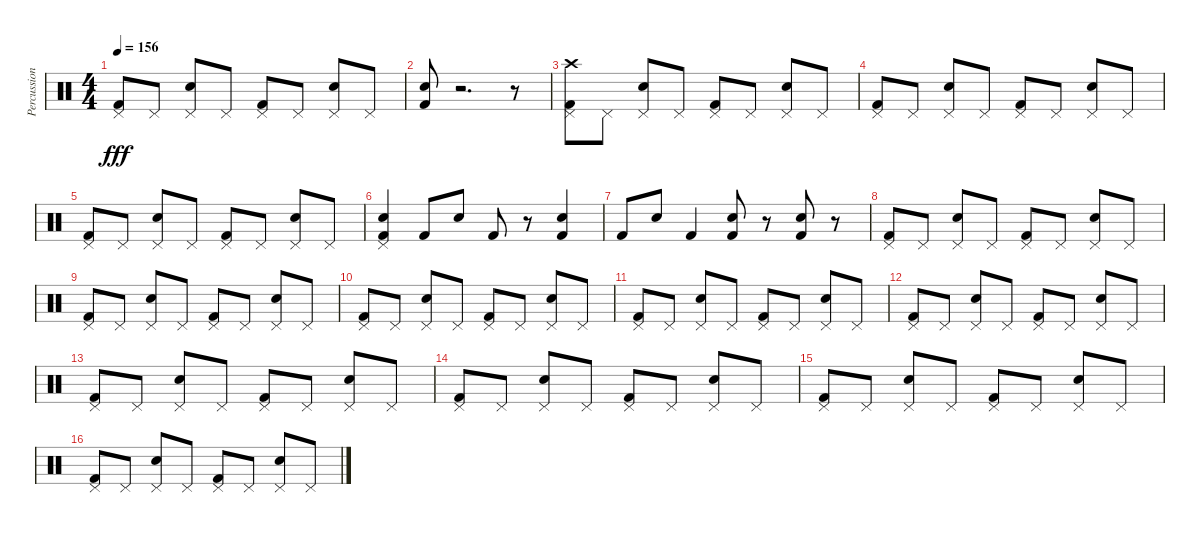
\track ("Percussion" "Percussion") {instrument percussion}
\staff {score}
\articulation defaults
\ts (4 4)
\tempo 156
\clef neutral
\ks c
("Pedal Hi-Hat (hit)" "Kick (hit) 2").8{dy fff} "Pedal Hi-Hat (hit)".8 ("Pedal Hi-Hat (hit)" "Electric Snare (hit)").8 "Pedal Hi-Hat (hit)".8 ("Pedal Hi-Hat (hit)" "Kick (hit) 2").8 "Pedal Hi-Hat (hit)".8 ("Pedal Hi-Hat (hit)" "Electric Snare (hit)").8 "Pedal Hi-Hat (hit)".8 |
("Kick (hit) 2" "Electric Snare (hit)").8 r.2{d} r.8 |
("Pedal Hi-Hat (hit)" "Kick (hit) 2" "Crash high (hit)").8 "Pedal Hi-Hat (hit)".8 ("Pedal Hi-Hat (hit)" "Electric Snare (hit)").8 "Pedal Hi-Hat (hit)".8 ("Pedal Hi-Hat (hit)" "Kick (hit) 2").8 "Pedal Hi-Hat (hit)".8 ("Pedal Hi-Hat (hit)" "Electric Snare (hit)").8 "Pedal Hi-Hat (hit)".8 |
("Pedal Hi-Hat (hit)" "Kick (hit) 2").8 "Pedal Hi-Hat (hit)".8 ("Pedal Hi-Hat (hit)" "Electric Snare (hit)").8 "Pedal Hi-Hat (hit)".8 ("Pedal Hi-Hat (hit)" "Kick (hit) 2").8 "Pedal Hi-Hat (hit)".8 ("Pedal Hi-Hat (hit)" "Electric Snare (hit)").8 "Pedal Hi-Hat (hit)".8 |
("Pedal Hi-Hat (hit)" "Kick (hit) 2").8 "Pedal Hi-Hat (hit)".8 ("Pedal Hi-Hat (hit)" "Electric Snare (hit)").8 "Pedal Hi-Hat (hit)".8 ("Pedal Hi-Hat (hit)" "Kick (hit) 2").8 "Pedal Hi-Hat (hit)".8 ("Pedal Hi-Hat (hit)" "Electric Snare (hit)").8 "Pedal Hi-Hat (hit)".8 |
("Pedal Hi-Hat (hit)" "Kick (hit) 2" "Snare (hit) 2").4 "Kick (hit) 2".8 "Snare (hit) 2".8 "Kick (hit) 2".8 r.8 ("Snare (hit) 2" "Kick (hit) 2").4 |
"Kick (hit) 2".8 "Snare (hit) 2".8 "Kick (hit) 2".4 ("Snare (hit) 2" "Kick (hit) 2").8 r.8 ("Snare (hit) 2" "Kick (hit) 2").8 r.8 |
("Pedal Hi-Hat (hit)" "Kick (hit) 2").8 "Pedal Hi-Hat (hit)".8 ("Pedal Hi-Hat (hit)" "Electric Snare (hit)").8 "Pedal Hi-Hat (hit)".8 ("Pedal Hi-Hat (hit)" "Kick (hit) 2").8 "Pedal Hi-Hat (hit)".8 ("Pedal Hi-Hat (hit)" "Electric Snare (hit)").8 "Pedal Hi-Hat (hit)".8 |
("Pedal Hi-Hat (hit)" "Kick (hit) 2").8 "Pedal Hi-Hat (hit)".8 ("Pedal Hi-Hat (hit)" "Electric Snare (hit)").8 "Pedal Hi-Hat (hit)".8 ("Pedal Hi-Hat (hit)" "Kick (hit) 2").8 "Pedal Hi-Hat (hit)".8 ("Pedal Hi-Hat (hit)" "Electric Snare (hit)").8 "Pedal Hi-Hat (hit)".8 |
("Pedal Hi-Hat (hit)" "Kick (hit) 2").8 "Pedal Hi-Hat (hit)".8 ("Pedal Hi-Hat (hit)" "Electric Snare (hit)").8 "Pedal Hi-Hat (hit)".8 ("Pedal Hi-Hat (hit)" "Kick (hit) 2").8 "Pedal Hi-Hat (hit)".8 ("Pedal Hi-Hat (hit)" "Electric Snare (hit)").8 "Pedal Hi-Hat (hit)".8 |
("Pedal Hi-Hat (hit)" "Kick (hit) 2").8 "Pedal Hi-Hat (hit)".8 ("Pedal Hi-Hat (hit)" "Electric Snare (hit)").8 "Pedal Hi-Hat (hit)".8 ("Pedal Hi-Hat (hit)" "Kick (hit) 2").8 "Pedal Hi-Hat (hit)".8 ("Pedal Hi-Hat (hit)" "Electric Snare (hit)").8 "Pedal Hi-Hat (hit)".8 |
("Pedal Hi-Hat (hit)" "Kick (hit) 2").8 "Pedal Hi-Hat (hit)".8 ("Pedal Hi-Hat (hit)" "Electric Snare (hit)").8 "Pedal Hi-Hat (hit)".8 ("Pedal Hi-Hat (hit)" "Kick (hit) 2").8 "Pedal Hi-Hat (hit)".8 ("Pedal Hi-Hat (hit)" "Electric Snare (hit)").8 "Pedal Hi-Hat (hit)".8 |
("Pedal Hi-Hat (hit)" "Kick (hit) 2").8 "Pedal Hi-Hat (hit)".8 ("Pedal Hi-Hat (hit)" "Electric Snare (hit)").8 "Pedal Hi-Hat (hit)".8 ("Pedal Hi-Hat (hit)" "Kick (hit) 2").8 "Pedal Hi-Hat (hit)".8 ("Pedal Hi-Hat (hit)" "Electric Snare (hit)").8 "Pedal Hi-Hat (hit)".8 |
("Pedal Hi-Hat (hit)" "Kick (hit) 2").8 "Pedal Hi-Hat (hit)".8 ("Pedal Hi-Hat (hit)" "Electric Snare (hit)").8 "Pedal Hi-Hat (hit)".8 ("Pedal Hi-Hat (hit)" "Kick (hit) 2").8 "Pedal Hi-Hat (hit)".8 ("Pedal Hi-Hat (hit)" "Electric Snare (hit)").8 "Pedal Hi-Hat (hit)".8 |
("Pedal Hi-Hat (hit)" "Kick (hit) 2").8 "Pedal Hi-Hat (hit)".8 ("Pedal Hi-Hat (hit)" "Electric Snare (hit)").8 "Pedal Hi-Hat (hit)".8 ("Pedal Hi-Hat (hit)" "Kick (hit) 2").8 "Pedal Hi-Hat (hit)".8 ("Pedal Hi-Hat (hit)" "Electric Snare (hit)").8 "Pedal Hi-Hat (hit)".8 |
("Pedal Hi-Hat (hit)" "Kick (hit) 2").8 "Pedal Hi-Hat (hit)".8 ("Pedal Hi-Hat (hit)" "Electric Snare (hit)").8 "Pedal Hi-Hat (hit)".8 ("Pedal Hi-Hat (hit)" "Kick (hit) 2").8 "Pedal Hi-Hat (hit)".8 ("Pedal Hi-Hat (hit)" "Electric Snare (hit)").8 "Pedal Hi-Hat (hit)".8
